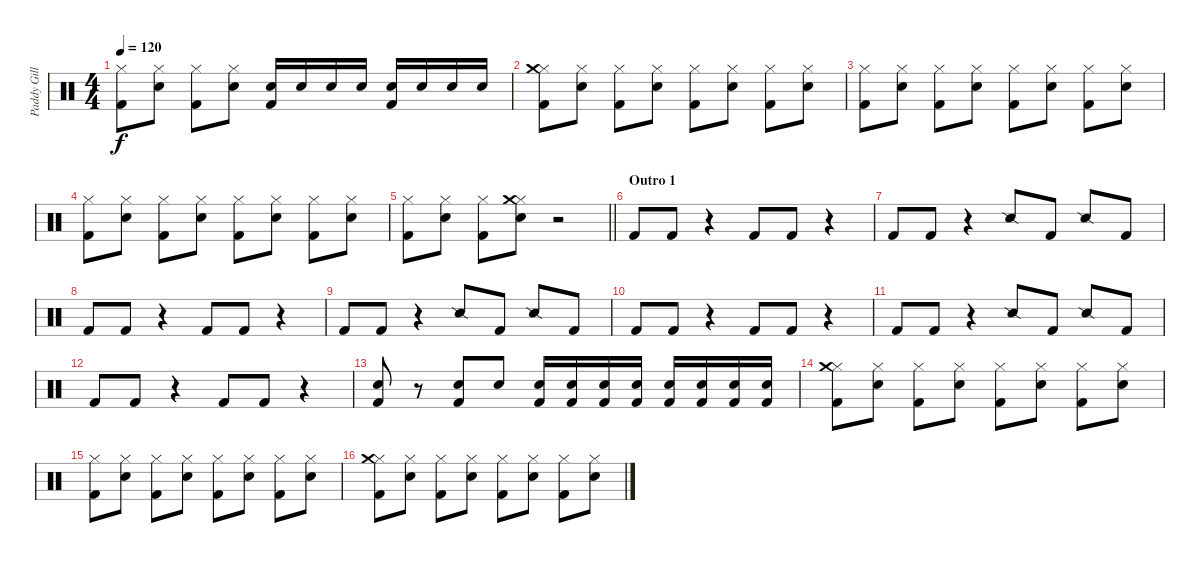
\track ("Paddy Gillespie" "Paddy Gill") {instrument percussion}
\staff {score}
\articulation defaults
\ts (4 4)
\tempo 120
\clef neutral
\ks c
("Hi-Hat (closed)" "Kick (hit) 2").8{dy f} ("Hi-Hat (closed)" "Snare (hit) 2").8 ("Hi-Hat (closed)" "Kick (hit) 2").8 ("Hi-Hat (closed)" "Snare (hit) 2").8 ("Snare (hit) 2" "Kick (hit) 2").16 "Snare (hit) 2".16 "Snare (hit) 2".16 "Snare (hit) 2".16 ("Snare (hit) 2" "Kick (hit) 2").16 "Snare (hit) 2".16 "Snare (hit) 2".16 "Snare (hit) 2".16 |
("Hi-Hat (closed)" "Kick (hit) 2" "Crash medium (hit)").8 ("Hi-Hat (closed)" "Snare (hit) 2").8 ("Hi-Hat (closed)" "Kick (hit) 2").8 ("Hi-Hat (closed)" "Snare (hit) 2").8 ("Hi-Hat (closed)" "Kick (hit) 2").8 ("Hi-Hat (closed)" "Snare (hit) 2").8 ("Hi-Hat (closed)" "Kick (hit) 2").8 ("Hi-Hat (closed)" "Snare (hit) 2").8 |
("Hi-Hat (closed)" "Kick (hit) 2").8 ("Hi-Hat (closed)" "Snare (hit) 2").8 ("Hi-Hat (closed)" "Kick (hit) 2").8 ("Hi-Hat (closed)" "Snare (hit) 2").8 ("Hi-Hat (closed)" "Kick (hit) 2").8 ("Hi-Hat (closed)" "Snare (hit) 2").8 ("Hi-Hat (closed)" "Kick (hit) 2").8 ("Hi-Hat (closed)" "Snare (hit) 2").8 |
("Hi-Hat (closed)" "Kick (hit) 2").8 ("Hi-Hat (closed)" "Snare (hit) 2").8 ("Hi-Hat (closed)" "Kick (hit) 2").8 ("Hi-Hat (closed)" "Snare (hit) 2").8 ("Hi-Hat (closed)" "Kick (hit) 2").8 ("Hi-Hat (closed)" "Snare (hit) 2").8 ("Hi-Hat (closed)" "Kick (hit) 2").8 ("Hi-Hat (closed)" "Snare (hit) 2").8 |
\barLineRight lightlight
("Hi-Hat (closed)" "Kick (hit) 2").8 ("Hi-Hat (closed)" "Snare (hit) 2").8 ("Hi-Hat (closed)" "Kick (hit) 2").8 ("Hi-Hat (closed)" "Snare (hit) 2" "Crash medium (hit)").8 r.2 |
\section ("" "Outro 1")
"Kick (hit) 2".8 "Kick (hit) 2".8 r.4 "Kick (hit) 2".8 "Kick (hit) 2".8 r.4 |
"Kick (hit) 2".8 "Kick (hit) 2".8 r.4 "Snare (side stick) 2".8 "Kick (hit) 2".8 "Snare (side stick) 2".8 "Kick (hit) 2".8 |
"Kick (hit) 2".8 "Kick (hit) 2".8 r.4 "Kick (hit) 2".8 "Kick (hit) 2".8 r.4 |
"Kick (hit) 2".8 "Kick (hit) 2".8 r.4 "Snare (side stick) 2".8 "Kick (hit) 2".8 "Snare (side stick) 2".8 "Kick (hit) 2".8 |
"Kick (hit) 2".8 "Kick (hit) 2".8 r.4 "Kick (hit) 2".8 "Kick (hit) 2".8 r.4 |
"Kick (hit) 2".8 "Kick (hit) 2".8 r.4 "Snare (side stick) 2".8 "Kick (hit) 2".8 "Snare (side stick) 2".8 "Kick (hit) 2".8 |
"Kick (hit) 2".8 "Kick (hit) 2".8 r.4 "Kick (hit) 2".8 "Kick (hit) 2".8 r.4 |
("Snare (hit) 2" "Kick (hit) 2").8 r.8 ("Snare (hit) 2" "Kick (hit) 2").8 "Snare (hit) 2".8 ("Snare (hit) 2" "Kick (hit) 2").16 ("Snare (hit) 2" "Kick (hit) 2").16 ("Snare (hit) 2" "Kick (hit) 2").16 ("Snare (hit) 2" "Kick (hit) 2").16 ("Snare (hit) 2" "Kick (hit) 2").16 ("Snare (hit) 2" "Kick (hit) 2").16 ("Snare (hit) 2" "Kick (hit) 2").16 ("Snare (hit) 2" "Kick (hit) 2").16 |
("Hi-Hat (closed)" "Kick (hit) 2" "Crash medium (hit)").8 ("Hi-Hat (closed)" "Snare (hit) 2").8 ("Hi-Hat (closed)" "Kick (hit) 2").8 ("Hi-Hat (closed)" "Snare (hit) 2").8 ("Hi-Hat (closed)" "Kick (hit) 2").8 ("Hi-Hat (closed)" "Snare (hit) 2").8 ("Hi-Hat (closed)" "Kick (hit) 2").8 ("Hi-Hat (closed)" "Snare (hit) 2").8 |
("Hi-Hat (closed)" "Kick (hit) 2").8 ("Hi-Hat (closed)" "Snare (hit) 2").8 ("Hi-Hat (closed)" "Kick (hit) 2").8 ("Hi-Hat (closed)" "Snare (hit) 2").8 ("Hi-Hat (closed)" "Kick (hit) 2").8 ("Hi-Hat (closed)" "Snare (hit) 2").8 ("Hi-Hat (closed)" "Kick (hit) 2").8 ("Hi-Hat (closed)" "Snare (hit) 2").8 |
("Hi-Hat (closed)" "Kick (hit) 2" "Crash medium (hit)").8 ("Hi-Hat (closed)" "Snare (hit) 2").8 ("Hi-Hat (closed)" "Kick (hit) 2").8 ("Hi-Hat (closed)" "Snare (hit) 2").8 ("Hi-Hat (closed)" "Kick (hit) 2").8 ("Hi-Hat (closed)" "Snare (hit) 2").8 ("Hi-Hat (closed)" "Kick (hit) 2").8 ("Hi-Hat (closed)" "Snare (hit) 2").8
